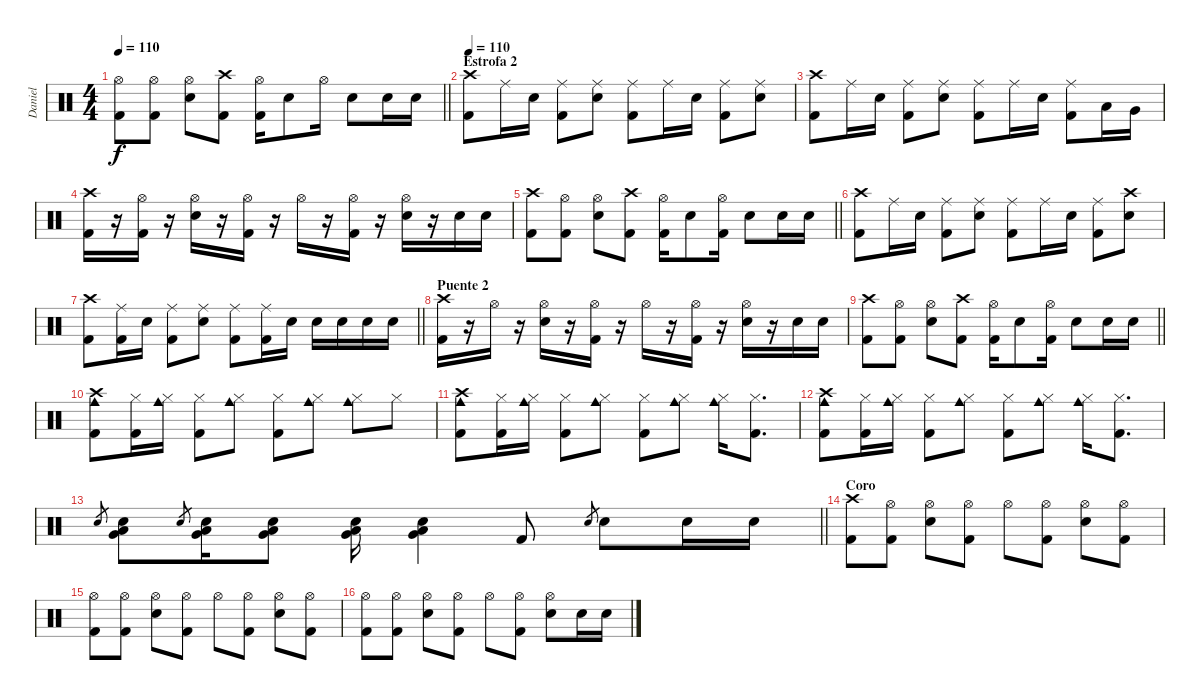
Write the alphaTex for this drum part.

\track ("Daniel" "Daniel") {instrument percussion}
\staff {score}
\articulation defaults
\ts (4 4)
\tempo 110
\clef neutral
\barLineRight lightlight
\ks c
("Hi-Hat (open)" "Kick (hit) 2").8{dy f} ("Hi-Hat (open)" "Kick (hit) 2").8 ("Hi-Hat (open)" "Snare (hit) 2").8 ("Crash high (hit)" "Kick (hit) 2").8 ("Hi-Hat (open)" "Kick (hit) 2").16 "Snare (hit) 2".8 "Hi-Hat (open)".16 "Snare (hit) 2".8 "Snare (hit) 2".16 "Snare (hit) 2".16 |
\section ("" "Estrofa 2")
\tempo 110
("Crash high (hit)" "Kick (hit) 2").8{volume 16} "Ride (middle)".16 "Snare (hit) 2".16 ("Ride (middle)" "Kick (hit) 2").8 ("Ride (middle)" "Snare (hit) 2").8 ("Ride (middle)" "Kick (hit) 2").8 "Ride (middle)".16 "Snare (hit) 2".16 ("Ride (middle)" "Kick (hit) 2").8 ("Ride (middle)" "Snare (hit) 2").8 |
("Crash high (hit)" "Kick (hit) 2").8 "Ride (middle)".16 "Snare (hit) 2".16 ("Ride (middle)" "Kick (hit) 2").8 ("Ride (middle)" "Snare (hit) 2").8 ("Ride (middle)" "Kick (hit) 2").8 "Ride (middle)".16 "Snare (hit) 2".16 ("Ride (middle)" "Kick (hit) 2").8 "Low Tom (hit)".16 "Very Low Tom (hit)".16 |
("Crash high (hit)" "Kick (hit) 2").16 r.16 ("Hi-Hat (open)" "Kick (hit) 2").16 r.16 ("Hi-Hat (open)" "Snare (hit) 2").16 r.16 ("Hi-Hat (open)" "Kick (hit) 2").16 r.16 "Hi-Hat (open)".16 r.16 ("Hi-Hat (open)" "Kick (hit) 2").16 r.16 ("Hi-Hat (open)" "Snare (hit) 2").16 r.16 "Snare (hit) 2".16 "Snare (hit) 2".16 |
\barLineRight lightlight
("Crash high (hit)" "Kick (hit) 2").8 ("Hi-Hat (open)" "Kick (hit) 2").8 ("Hi-Hat (open)" "Snare (hit) 2").8 ("Crash high (hit)" "Kick (hit) 2").8 ("Hi-Hat (open)" "Kick (hit) 2").16 "Snare (hit) 2".8 ("Hi-Hat (open)" "Kick (hit) 2").16 "Snare (hit) 2".8 "Snare (hit) 2".16 "Snare (hit) 2".16 |
("Crash high (hit)" "Kick (hit) 2").8 "Ride (middle)".16 "Snare (hit) 2".16 ("Ride (middle)" "Kick (hit) 2").8 ("Ride (middle)" "Snare (hit) 2").8 ("Ride (middle)" "Kick (hit) 2").8 "Ride (middle)".16 "Snare (hit) 2".16 ("Ride (middle)" "Kick (hit) 2").8 ("Crash high (hit)" "Snare (hit) 2").8 |
\barLineRight lightlight
("Crash high (hit)" "Kick (hit) 2").8 ("Ride (middle)" "Kick (hit) 2").16 "Snare (hit) 2".16 ("Ride (middle)" "Kick (hit) 2").8 ("Ride (middle)" "Snare (hit) 2").8 ("Ride (middle)" "Kick (hit) 2").8 ("Ride (middle)" "Kick (hit) 2").16 "Snare (hit) 2".16 "Snare (hit) 2".16 "Snare (hit) 2".16 "Snare (hit) 2".16 "Snare (hit) 2".16 |
\section ("" "Puente 2")
("Crash high (hit)" "Kick (hit) 2").16 r.16 "Hi-Hat (open)".16 r.16 ("Hi-Hat (open)" "Snare (hit) 2").16 r.16 ("Hi-Hat (open)" "Kick (hit) 2").16 r.16 "Hi-Hat (open)".16 r.16 ("Hi-Hat (open)" "Kick (hit) 2").16 r.16 ("Hi-Hat (open)" "Snare (hit) 2").16 r.16 "Snare (hit) 2".16 "Snare (hit) 2".16 |
\barLineRight lightlight
("Crash high (hit)" "Kick (hit) 2").8 ("Hi-Hat (open)" "Kick (hit) 2").8 ("Hi-Hat (open)" "Snare (hit) 2").8 ("Crash high (hit)" "Kick (hit) 2").8 ("Hi-Hat (open)" "Kick (hit) 2").16 "Snare (hit) 2".8 ("Hi-Hat (open)" "Kick (hit) 2").16 "Snare (hit) 2".8 "Snare (hit) 2".16 "Snare (hit) 2".16 |
("Crash high (hit)" "Cowbell medium (hit)" "Kick (hit) 2").8 ("Hi-Hat (closed)" "Kick (hit) 2").16 ("Hi-Hat (closed)" "Cowbell medium (hit)").16 ("Hi-Hat (closed)" "Kick (hit) 2").8 ("Hi-Hat (closed)" "Cowbell medium (hit)").8 ("Hi-Hat (closed)" "Kick (hit) 2").8 ("Hi-Hat (closed)" "Cowbell medium (hit)").8 ("Hi-Hat (closed)" "Cowbell medium (hit)").8 "Hi-Hat (closed)".8 |
("Crash high (hit)" "Cowbell medium (hit)" "Kick (hit) 2").8 ("Hi-Hat (closed)" "Kick (hit) 2").16 ("Hi-Hat (closed)" "Cowbell medium (hit)").16 ("Hi-Hat (closed)" "Kick (hit) 2").8 ("Hi-Hat (closed)" "Cowbell medium (hit)").8 ("Hi-Hat (closed)" "Kick (hit) 2").8 ("Hi-Hat (closed)" "Cowbell medium (hit)").8 ("Hi-Hat (closed)" "Cowbell medium (hit)").16 ("Hi-Hat (closed)" "Kick (hit) 2").8{d} |
("Crash high (hit)" "Cowbell medium (hit)" "Kick (hit) 2").8 ("Hi-Hat (closed)" "Kick (hit) 2").16 ("Hi-Hat (closed)" "Cowbell medium (hit)").16 ("Hi-Hat (closed)" "Kick (hit) 2").8 ("Hi-Hat (closed)" "Cowbell medium (hit)").8 ("Hi-Hat (closed)" "Kick (hit) 2").8 ("Hi-Hat (closed)" "Cowbell medium (hit)").8 ("Hi-Hat (closed)" "Cowbell medium (hit)").16 ("Hi-Hat (closed)" "Kick (hit) 2").8{d} |
\barLineRight lightlight "Snare (hit) 2".8{gr}
("Snare (hit) 2" "Low Floor Tom (hit)" "Very Low Tom (hit)").8 "Snare (hit) 2".8{gr} ("Snare (hit) 2" "Low Floor Tom (hit)" "Very Low Tom (hit)").16 ("Snare (hit) 2" "Low Floor Tom (hit)" "Very Low Tom (hit)").8 ("Snare (hit) 2" "Low Floor Tom (hit)" "Very Low Tom (hit)").16 ("Snare (hit) 2" "Low Floor Tom (hit)" "Very Low Tom (hit)").4 "Kick (hit) 2".8 "Snare (hit) 2".8{gr} "Snare (hit) 2".8 "Snare (hit) 2".16 "Snare (hit) 2".16 |
\section ("" "Coro")
("Crash high (hit)" "Kick (hit) 2").8 ("Hi-Hat (open)" "Kick (hit) 2").8 ("Hi-Hat (open)" "Snare (hit) 2").8 ("Hi-Hat (open)" "Kick (hit) 2").8 "Hi-Hat (open)".8 ("Hi-Hat (open)" "Kick (hit) 2").8 ("Hi-Hat (open)" "Snare (hit) 2").8 ("Hi-Hat (open)" "Kick (hit) 2").8 |
("Hi-Hat (open)" "Kick (hit) 2").8 ("Hi-Hat (open)" "Kick (hit) 2").8 ("Hi-Hat (open)" "Snare (hit) 2").8 ("Hi-Hat (open)" "Kick (hit) 2").8 "Hi-Hat (open)".8 ("Hi-Hat (open)" "Kick (hit) 2").8 ("Hi-Hat (open)" "Snare (hit) 2").8 ("Hi-Hat (open)" "Kick (hit) 2").8 |
("Hi-Hat (open)" "Kick (hit) 2").8 ("Hi-Hat (open)" "Kick (hit) 2").8 ("Hi-Hat (open)" "Snare (hit) 2").8 ("Hi-Hat (open)" "Kick (hit) 2").8 "Hi-Hat (open)".8 ("Hi-Hat (open)" "Kick (hit) 2").8 ("Hi-Hat (open)" "Snare (hit) 2").8 "Snare (hit) 2".16 "Snare (hit) 2".16
